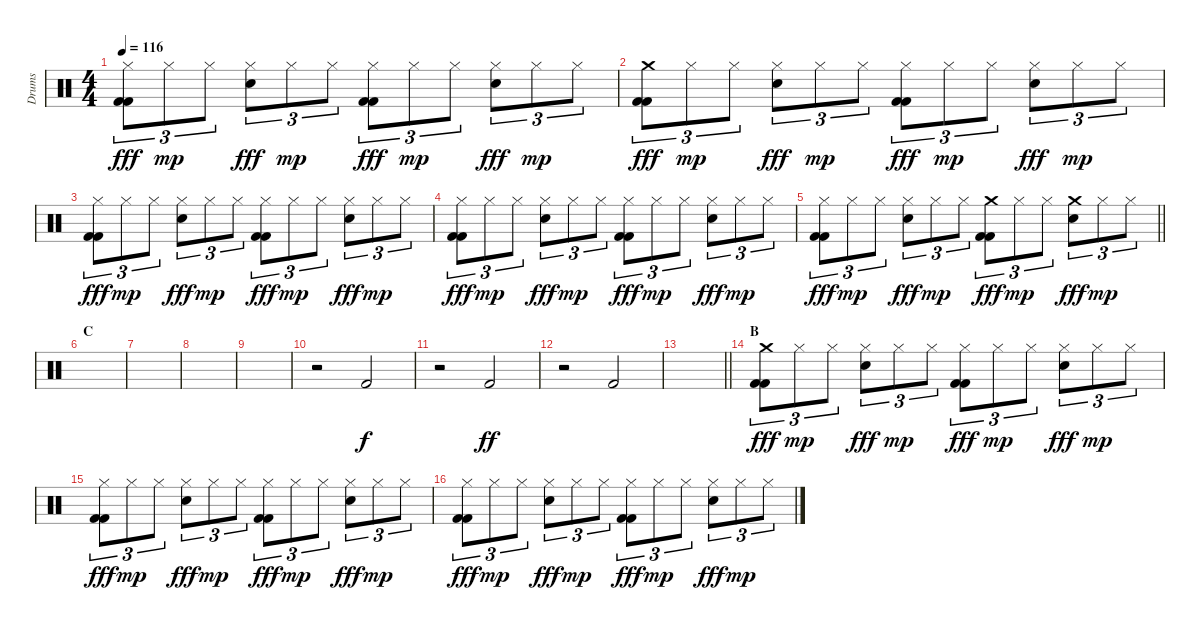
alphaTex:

\track ("Drums" "Drums") {instrument percussion}
\staff {score}
\articulation defaults
\ts (4 4)
\tempo 116
\clef neutral
\ks aminor
("Hi-Hat (closed)" "Kick (hit) 2" "Kick (hit) 2").8{tu (3 2) dy fff} "Hi-Hat (closed)".8{tu (3 2) dy mp} "Hi-Hat (closed)".8{tu (3 2)} ("Hi-Hat (closed)" "Snare (hit) 2").8{tu (3 2) dy fff} "Hi-Hat (closed)".8{tu (3 2) dy mp} "Hi-Hat (closed)".8{tu (3 2)} ("Hi-Hat (closed)" "Kick (hit) 2" "Kick (hit) 2").8{tu (3 2) dy fff} "Hi-Hat (closed)".8{tu (3 2) dy mp} "Hi-Hat (closed)".8{tu (3 2)} ("Hi-Hat (closed)" "Snare (hit) 2").8{tu (3 2) dy fff} "Hi-Hat (closed)".8{tu (3 2) dy mp} "Hi-Hat (closed)".8{tu (3 2)} |
("Crash medium (hit)" "Kick (hit) 2" "Kick (hit) 2").8{tu (3 2) dy fff} "Hi-Hat (closed)".8{tu (3 2) dy mp} "Hi-Hat (closed)".8{tu (3 2)} ("Hi-Hat (closed)" "Snare (hit) 2").8{tu (3 2) dy fff} "Hi-Hat (closed)".8{tu (3 2) dy mp} "Hi-Hat (closed)".8{tu (3 2)} ("Hi-Hat (closed)" "Kick (hit) 2" "Kick (hit) 2").8{tu (3 2) dy fff} "Hi-Hat (closed)".8{tu (3 2) dy mp} "Hi-Hat (closed)".8{tu (3 2)} ("Hi-Hat (closed)" "Snare (hit) 2").8{tu (3 2) dy fff} "Hi-Hat (closed)".8{tu (3 2) dy mp} "Hi-Hat (closed)".8{tu (3 2)} |
("Hi-Hat (closed)" "Kick (hit) 2" "Kick (hit) 2").8{tu (3 2) dy fff} "Hi-Hat (closed)".8{tu (3 2) dy mp} "Hi-Hat (closed)".8{tu (3 2)} ("Hi-Hat (closed)" "Snare (hit) 2").8{tu (3 2) dy fff} "Hi-Hat (closed)".8{tu (3 2) dy mp} "Hi-Hat (closed)".8{tu (3 2)} ("Hi-Hat (closed)" "Kick (hit) 2" "Kick (hit) 2").8{tu (3 2) dy fff} "Hi-Hat (closed)".8{tu (3 2) dy mp} "Hi-Hat (closed)".8{tu (3 2)} ("Hi-Hat (closed)" "Snare (hit) 2").8{tu (3 2) dy fff} "Hi-Hat (closed)".8{tu (3 2) dy mp} "Hi-Hat (closed)".8{tu (3 2)} |
("Hi-Hat (closed)" "Kick (hit) 2" "Kick (hit) 2").8{tu (3 2) dy fff} "Hi-Hat (closed)".8{tu (3 2) dy mp} "Hi-Hat (closed)".8{tu (3 2)} ("Hi-Hat (closed)" "Snare (hit) 2").8{tu (3 2) dy fff} "Hi-Hat (closed)".8{tu (3 2) dy mp} "Hi-Hat (closed)".8{tu (3 2)} ("Hi-Hat (closed)" "Kick (hit) 2" "Kick (hit) 2").8{tu (3 2) dy fff} "Hi-Hat (closed)".8{tu (3 2) dy mp} "Hi-Hat (closed)".8{tu (3 2)} ("Hi-Hat (closed)" "Snare (hit) 2").8{tu (3 2) dy fff} "Hi-Hat (closed)".8{tu (3 2) dy mp} "Hi-Hat (closed)".8{tu (3 2)} |
\barLineRight lightlight
("Hi-Hat (closed)" "Kick (hit) 2" "Kick (hit) 2").8{tu (3 2) dy fff} "Hi-Hat (closed)".8{tu (3 2) dy mp} "Hi-Hat (closed)".8{tu (3 2)} ("Hi-Hat (closed)" "Snare (hit) 2").8{tu (3 2) dy fff} "Hi-Hat (closed)".8{tu (3 2) dy mp} "Hi-Hat (closed)".8{tu (3 2)} ("Crash medium (hit)" "Kick (hit) 2" "Kick (hit) 2").8{tu (3 2) dy fff} "Hi-Hat (closed)".8{tu (3 2) dy mp} "Hi-Hat (closed)".8{tu (3 2)} ("Crash medium (hit)" "Snare (hit) 2").8{tu (3 2) dy fff} "Hi-Hat (closed)".8{tu (3 2) dy mp} "Hi-Hat (closed)".8{tu (3 2)} |
\section ("" "C")
|
|
|
|
r.2 "Kick (hit) 2".2{dy f} |
r.2 "Kick (hit) 2".2{dy ff} |
r.2 "Kick (hit) 2".2 |
\barLineRight lightlight
|
\section ("" "B")
("Crash medium (hit)" "Kick (hit) 2" "Kick (hit) 2").8{tu (3 2) dy fff} "Hi-Hat (closed)".8{tu (3 2) dy mp} "Hi-Hat (closed)".8{tu (3 2)} ("Hi-Hat (closed)" "Snare (hit) 2").8{tu (3 2) dy fff} "Hi-Hat (closed)".8{tu (3 2) dy mp} "Hi-Hat (closed)".8{tu (3 2)} ("Hi-Hat (closed)" "Kick (hit) 2" "Kick (hit) 2").8{tu (3 2) dy fff} "Hi-Hat (closed)".8{tu (3 2) dy mp} "Hi-Hat (closed)".8{tu (3 2)} ("Hi-Hat (closed)" "Snare (hit) 2").8{tu (3 2) dy fff} "Hi-Hat (closed)".8{tu (3 2) dy mp} "Hi-Hat (closed)".8{tu (3 2)} |
("Hi-Hat (closed)" "Kick (hit) 2" "Kick (hit) 2").8{tu (3 2) dy fff} "Hi-Hat (closed)".8{tu (3 2) dy mp} "Hi-Hat (closed)".8{tu (3 2)} ("Hi-Hat (closed)" "Snare (hit) 2").8{tu (3 2) dy fff} "Hi-Hat (closed)".8{tu (3 2) dy mp} "Hi-Hat (closed)".8{tu (3 2)} ("Hi-Hat (closed)" "Kick (hit) 2" "Kick (hit) 2").8{tu (3 2) dy fff} "Hi-Hat (closed)".8{tu (3 2) dy mp} "Hi-Hat (closed)".8{tu (3 2)} ("Hi-Hat (closed)" "Snare (hit) 2").8{tu (3 2) dy fff} "Hi-Hat (closed)".8{tu (3 2) dy mp} "Hi-Hat (closed)".8{tu (3 2)} |
("Hi-Hat (closed)" "Kick (hit) 2" "Kick (hit) 2").8{tu (3 2) dy fff} "Hi-Hat (closed)".8{tu (3 2) dy mp} "Hi-Hat (closed)".8{tu (3 2)} ("Hi-Hat (closed)" "Snare (hit) 2").8{tu (3 2) dy fff} "Hi-Hat (closed)".8{tu (3 2) dy mp} "Hi-Hat (closed)".8{tu (3 2)} ("Hi-Hat (closed)" "Kick (hit) 2" "Kick (hit) 2").8{tu (3 2) dy fff} "Hi-Hat (closed)".8{tu (3 2) dy mp} "Hi-Hat (closed)".8{tu (3 2)} ("Hi-Hat (closed)" "Snare (hit) 2").8{tu (3 2) dy fff} "Hi-Hat (closed)".8{tu (3 2) dy mp} "Hi-Hat (closed)".8{tu (3 2)}
